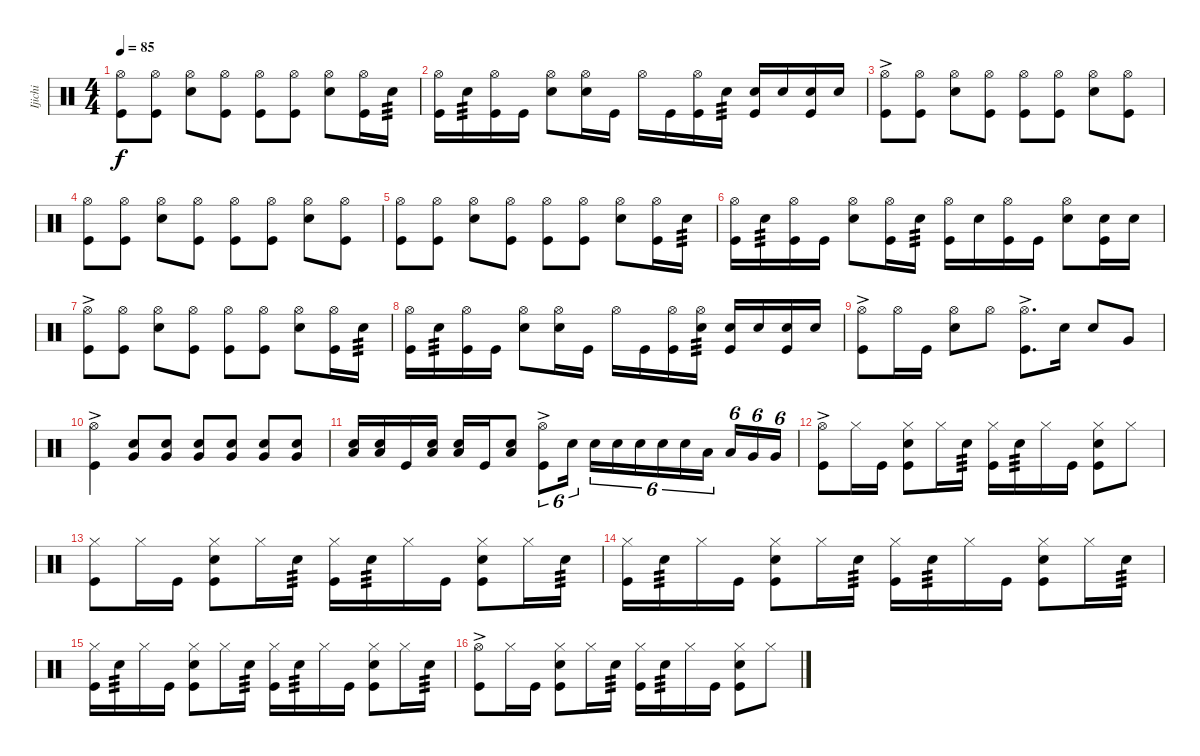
\track ("Ijichi" "Ijichi") {instrument percussion}
\staff {score}
\articulation defaults
\ts (4 4)
\tempo 85
\clef neutral
\ks c
("Hi-Hat (open)" "Kick (hit)").8{dy f} ("Hi-Hat (open)" "Kick (hit)").8 ("Hi-Hat (open)" "Snare (hit) 2").8 ("Hi-Hat (open)" "Kick (hit)").8 ("Hi-Hat (open)" "Kick (hit)").8 ("Hi-Hat (open)" "Kick (hit)").8 ("Hi-Hat (open)" "Snare (hit) 2").8 ("Hi-Hat (open)" "Kick (hit)").16 "Snare (hit) 2".16{tp 3} |
("Hi-Hat (open)" "Kick (hit)").16 "Snare (hit) 2".16{tp 3} ("Hi-Hat (open)" "Kick (hit)").16 "Kick (hit)".16 ("Hi-Hat (open)" "Snare (hit) 2").8 ("Hi-Hat (open)" "Snare (hit) 2").16 "Kick (hit)".16 "Hi-Hat (open)".16 "Kick (hit)".16 ("Hi-Hat (open)" "Kick (hit)").16 "Snare (hit) 2".16{tp 3} ("Snare (hit) 2" "Kick (hit)").16 "Snare (hit) 2".16 ("Snare (hit) 2" "Kick (hit)").16 "Snare (hit) 2".16 |
("Hi-Hat (open)"{ac} "Kick (hit)").8 ("Hi-Hat (open)" "Kick (hit)").8 ("Hi-Hat (open)" "Snare (hit) 2").8 ("Hi-Hat (open)" "Kick (hit)").8 ("Hi-Hat (open)" "Kick (hit)").8 ("Hi-Hat (open)" "Kick (hit)").8 ("Hi-Hat (open)" "Snare (hit) 2").8 ("Hi-Hat (open)" "Kick (hit)").8 |
("Hi-Hat (open)" "Kick (hit)").8 ("Hi-Hat (open)" "Kick (hit)").8 ("Hi-Hat (open)" "Snare (hit) 2").8 ("Hi-Hat (open)" "Kick (hit)").8 ("Hi-Hat (open)" "Kick (hit)").8 ("Hi-Hat (open)" "Kick (hit)").8 ("Hi-Hat (open)" "Snare (hit) 2").8 ("Hi-Hat (open)" "Kick (hit)").8 |
("Hi-Hat (open)" "Kick (hit)").8 ("Hi-Hat (open)" "Kick (hit)").8 ("Hi-Hat (open)" "Snare (hit) 2").8 ("Hi-Hat (open)" "Kick (hit)").8 ("Hi-Hat (open)" "Kick (hit)").8 ("Hi-Hat (open)" "Kick (hit)").8 ("Hi-Hat (open)" "Snare (hit) 2").8 ("Hi-Hat (open)" "Kick (hit)").16 "Snare (hit) 2".16{tp 3} |
("Hi-Hat (open)" "Kick (hit)").16 "Snare (hit) 2".16{tp 3} ("Hi-Hat (open)" "Kick (hit)").16 "Kick (hit)".16 ("Hi-Hat (open)" "Snare (hit) 2").8 ("Hi-Hat (open)" "Kick (hit)").16 "Snare (hit) 2".16{tp 3} ("Hi-Hat (open)" "Kick (hit)").16 "Snare (hit) 2".16 ("Hi-Hat (open)" "Kick (hit)").16 "Kick (hit)".16 ("Hi-Hat (open)" "Snare (hit) 2").8 ("Snare (hit) 2" "Kick (hit)").16 "Snare (hit) 2".16 |
("Hi-Hat (open)"{ac} "Kick (hit)").8 ("Hi-Hat (open)" "Kick (hit)").8 ("Hi-Hat (open)" "Snare (hit) 2").8 ("Hi-Hat (open)" "Kick (hit)").8 ("Hi-Hat (open)" "Kick (hit)").8 ("Hi-Hat (open)" "Kick (hit)").8 ("Hi-Hat (open)" "Snare (hit) 2").8 ("Hi-Hat (open)" "Kick (hit)").16 "Snare (hit) 2".16{tp 3} |
("Hi-Hat (open)" "Kick (hit)").16 "Snare (hit) 2".16{tp 3} ("Hi-Hat (open)" "Kick (hit)").16 "Kick (hit)".16 ("Hi-Hat (open)" "Snare (hit) 2").8 ("Hi-Hat (open)" "Snare (hit) 2").16 "Kick (hit)".16 "Hi-Hat (open)".16 "Kick (hit)".16 ("Hi-Hat (open)" "Kick (hit)").16 ("Hi-Hat (open)" "Snare (hit) 2").16{tp 3} ("Snare (hit) 2" "Kick (hit)").16 "Snare (hit) 2".16 ("Snare (hit) 2" "Kick (hit)").16 "Snare (hit) 2".16 |
("Hi-Hat (open)"{ac} "Kick (hit)").8 "Hi-Hat (open)".16 "Kick (hit)".16 ("Hi-Hat (open)" "Snare (hit) 2").8 "Hi-Hat (open)".8 ("Hi-Hat (open)"{ac} "Kick (hit)").8{d} "Snare (hit) 2".16 "Snare (hit) 2".8 "Very Low Tom (hit)".8 |
("Hi-Hat (open)"{ac} "Kick (hit)").4 ("Snare (hit) 2" "Very Low Tom (hit)").8 ("Snare (hit) 2" "Very Low Tom (hit)").8 ("Snare (hit) 2" "Very Low Tom (hit)").8 ("Snare (hit) 2" "Very Low Tom (hit)").8 ("Snare (hit) 2" "Very Low Tom (hit)").8 ("Snare (hit) 2" "Very Low Tom (hit)").8 |
("Snare (hit) 2" "Low Tom (hit)").16 ("Snare (hit) 2" "Low Tom (hit)").16 "Kick (hit)".16 ("Snare (hit) 2" "Low Tom (hit)").16 ("Snare (hit) 2" "Low Tom (hit)").16 "Kick (hit)".16 ("Snare (hit) 2" "Low Tom (hit)").8 ("Hi-Hat (open)"{ac} "Kick (hit)").8{tu (6 4)} "Snare (hit) 2".16{tu (6 4)} "Snare (hit) 2".16{tu (6 4)} "Snare (hit) 2".16{tu (6 4)} "Snare (hit) 2".16{tu (6 4)} "Snare (hit) 2".16{tu (6 4)} "Snare (hit) 2".16{tu (6 4)} "Low Tom (hit)".16{tu (6 4)} "Low Tom (hit)".16{tu (6 4)} "Very Low Tom (hit)".16{tu (6 4)} "Very Low Tom (hit)".16{tu (6 4)} |
("Hi-Hat (open)"{ac} "Kick (hit)").8 "Hi-Hat (closed)".16 "Kick (hit)".16 ("Hi-Hat (closed)" "Snare (hit) 2" "Kick (hit)").8 "Hi-Hat (closed)".16 "Snare (hit) 2".16{tp 3} ("Hi-Hat (closed)" "Kick (hit)").16 "Snare (hit) 2".16{tp 3} "Hi-Hat (closed)".16 "Kick (hit)".16 ("Hi-Hat (closed)" "Snare (hit) 2" "Kick (hit)").8 "Hi-Hat (closed)".8 |
("Hi-Hat (closed)" "Kick (hit)").8 "Hi-Hat (closed)".16 "Kick (hit)".16 ("Hi-Hat (closed)" "Snare (hit) 2" "Kick (hit)").8 "Hi-Hat (closed)".16 "Snare (hit) 2".16{tp 3} ("Hi-Hat (closed)" "Kick (hit)").16 "Snare (hit) 2".16{tp 3} "Hi-Hat (closed)".16 "Kick (hit)".16 ("Hi-Hat (closed)" "Snare (hit) 2" "Kick (hit)").8 "Hi-Hat (closed)".16 "Snare (hit) 2".16{tp 3} |
("Hi-Hat (closed)" "Kick (hit)").16 "Snare (hit) 2".16{tp 3} "Hi-Hat (closed)".16 "Kick (hit)".16 ("Hi-Hat (closed)" "Snare (hit) 2" "Kick (hit)").8 "Hi-Hat (closed)".16 "Snare (hit) 2".16{tp 3} ("Hi-Hat (closed)" "Kick (hit)").16 "Snare (hit) 2".16{tp 3} "Hi-Hat (closed)".16 "Kick (hit)".16 ("Hi-Hat (closed)" "Snare (hit) 2" "Kick (hit)").8 "Hi-Hat (closed)".16 "Snare (hit) 2".16{tp 3} |
("Hi-Hat (closed)" "Kick (hit)").16 "Snare (hit) 2".16{tp 3} "Hi-Hat (closed)".16 "Kick (hit)".16 ("Hi-Hat (closed)" "Snare (hit) 2" "Kick (hit)").8 "Hi-Hat (closed)".16 "Snare (hit) 2".16{tp 3} ("Hi-Hat (closed)" "Kick (hit)").16 "Snare (hit) 2".16{tp 3} "Hi-Hat (closed)".16 "Kick (hit)".16 ("Hi-Hat (closed)" "Snare (hit) 2" "Kick (hit)").8 "Hi-Hat (closed)".16 "Snare (hit) 2".16{tp 3} |
("Hi-Hat (open)"{ac} "Kick (hit)").8 "Hi-Hat (closed)".16 "Kick (hit)".16 ("Hi-Hat (closed)" "Snare (hit) 2" "Kick (hit)").8 "Hi-Hat (closed)".16 "Snare (hit) 2".16{tp 3} ("Hi-Hat (closed)" "Kick (hit)").16 "Snare (hit) 2".16{tp 3} "Hi-Hat (closed)".16 "Kick (hit)".16 ("Hi-Hat (closed)" "Snare (hit) 2" "Kick (hit)").8 "Hi-Hat (closed)".8
